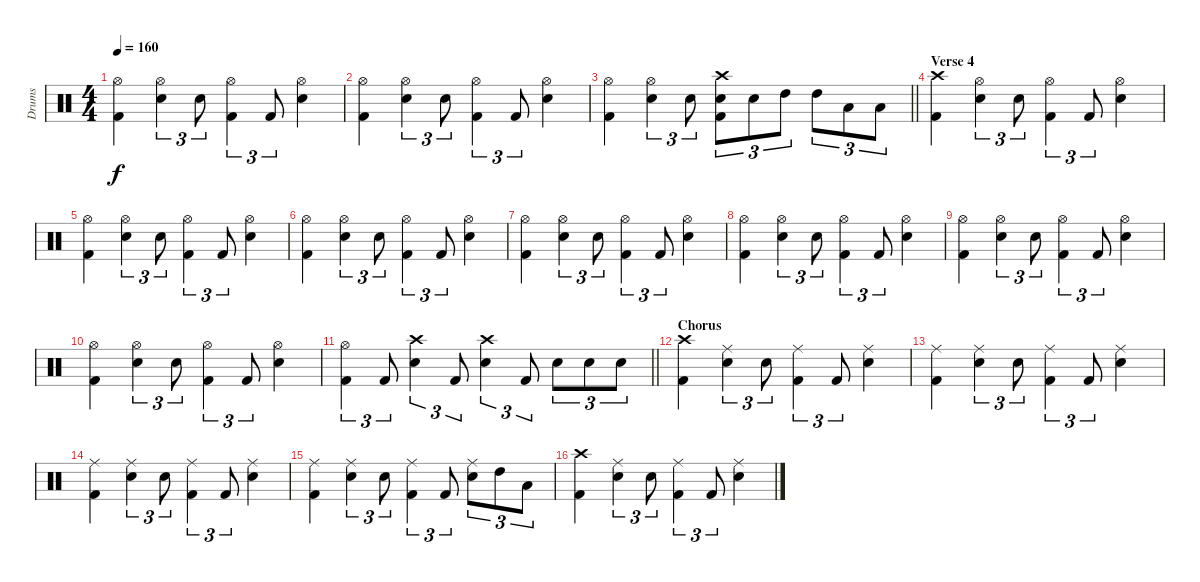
\track ("Drums" "Drums") {instrument percussion}
\staff {score}
\articulation defaults
\ts (4 4)
\tempo 160
\clef neutral
\ks c
("Hi-Hat (open)" "Kick (hit) 2").4{dy f} ("Hi-Hat (open)" "Snare (hit) 2").4{tu (3 2)} "Snare (hit) 2".8{tu (3 2)} ("Hi-Hat (open)" "Kick (hit) 2").4{tu (3 2)} "Kick (hit) 2".8{tu (3 2)} ("Hi-Hat (open)" "Snare (hit) 2").4 |
("Hi-Hat (open)" "Kick (hit) 2").4 ("Hi-Hat (open)" "Snare (hit) 2").4{tu (3 2)} "Snare (hit) 2".8{tu (3 2)} ("Hi-Hat (open)" "Kick (hit) 2").4{tu (3 2)} "Kick (hit) 2".8{tu (3 2)} ("Hi-Hat (open)" "Snare (hit) 2").4 |
\barLineRight lightlight
("Hi-Hat (open)" "Kick (hit) 2").4 ("Hi-Hat (open)" "Snare (hit) 2").4{tu (3 2)} "Snare (hit) 2".8{tu (3 2)} ("Crash high (hit)" "Snare (hit) 2" "Kick (hit) 2").8{tu (3 2)} "Snare (hit) 2".8{tu (3 2)} "High Tom (hit)".8{tu (3 2)} "High Tom (hit)".8{tu (3 2)} "Low Tom (hit)".8{tu (3 2)} "Low Tom (hit)".8{tu (3 2)} |
\section ("" "Verse 4")
("Crash high (hit)" "Kick (hit) 2").4 ("Hi-Hat (open)" "Snare (hit) 2").4{tu (3 2)} "Snare (hit) 2".8{tu (3 2)} ("Hi-Hat (open)" "Kick (hit) 2").4{tu (3 2)} "Kick (hit) 2".8{tu (3 2)} ("Hi-Hat (open)" "Snare (hit) 2").4 |
("Hi-Hat (open)" "Kick (hit) 2").4 ("Hi-Hat (open)" "Snare (hit) 2").4{tu (3 2)} "Snare (hit) 2".8{tu (3 2)} ("Hi-Hat (open)" "Kick (hit) 2").4{tu (3 2)} "Kick (hit) 2".8{tu (3 2)} ("Hi-Hat (open)" "Snare (hit) 2").4 |
("Hi-Hat (open)" "Kick (hit) 2").4 ("Hi-Hat (open)" "Snare (hit) 2").4{tu (3 2)} "Snare (hit) 2".8{tu (3 2)} ("Hi-Hat (open)" "Kick (hit) 2").4{tu (3 2)} "Kick (hit) 2".8{tu (3 2)} ("Hi-Hat (open)" "Snare (hit) 2").4 |
("Hi-Hat (open)" "Kick (hit) 2").4 ("Hi-Hat (open)" "Snare (hit) 2").4{tu (3 2)} "Snare (hit) 2".8{tu (3 2)} ("Hi-Hat (open)" "Kick (hit) 2").4{tu (3 2)} "Kick (hit) 2".8{tu (3 2)} ("Hi-Hat (open)" "Snare (hit) 2").4 |
("Hi-Hat (open)" "Kick (hit) 2").4 ("Hi-Hat (open)" "Snare (hit) 2").4{tu (3 2)} "Snare (hit) 2".8{tu (3 2)} ("Hi-Hat (open)" "Kick (hit) 2").4{tu (3 2)} "Kick (hit) 2".8{tu (3 2)} ("Hi-Hat (open)" "Snare (hit) 2").4 |
("Hi-Hat (open)" "Kick (hit) 2").4 ("Hi-Hat (open)" "Snare (hit) 2").4{tu (3 2)} "Snare (hit) 2".8{tu (3 2)} ("Hi-Hat (open)" "Kick (hit) 2").4{tu (3 2)} "Kick (hit) 2".8{tu (3 2)} ("Hi-Hat (open)" "Snare (hit) 2").4 |
("Hi-Hat (open)" "Kick (hit) 2").4 ("Hi-Hat (open)" "Snare (hit) 2").4{tu (3 2)} "Snare (hit) 2".8{tu (3 2)} ("Hi-Hat (open)" "Kick (hit) 2").4{tu (3 2)} "Kick (hit) 2".8{tu (3 2)} ("Hi-Hat (open)" "Snare (hit) 2").4 |
\barLineRight lightlight
("Hi-Hat (open)" "Kick (hit) 2").4{tu (3 2)} "Kick (hit) 2".8{tu (3 2)} ("Crash high (hit)" "Snare (hit) 2").4{tu (3 2)} "Kick (hit) 2".8{tu (3 2)} ("Crash high (hit)" "Snare (hit) 2").4{tu (3 2)} "Kick (hit) 2".8{tu (3 2)} "Snare (hit) 2".8{tu (3 2)} "Snare (hit) 2".8{tu (3 2)} "Snare (hit) 2".8{tu (3 2)} |
\section ("" "Chorus")
("Crash high (hit)" "Kick (hit) 2").4 ("Ride (middle)" "Snare (hit) 2").4{tu (3 2)} "Snare (hit) 2".8{tu (3 2)} ("Ride (middle)" "Kick (hit) 2").4{tu (3 2)} "Kick (hit) 2".8{tu (3 2)} ("Ride (middle)" "Snare (hit) 2").4 |
("Ride (middle)" "Kick (hit) 2").4 ("Ride (middle)" "Snare (hit) 2").4{tu (3 2)} "Snare (hit) 2".8{tu (3 2)} ("Ride (middle)" "Kick (hit) 2").4{tu (3 2)} "Kick (hit) 2".8{tu (3 2)} ("Ride (middle)" "Snare (hit) 2").4 |
("Ride (middle)" "Kick (hit) 2").4 ("Ride (middle)" "Snare (hit) 2").4{tu (3 2)} "Snare (hit) 2".8{tu (3 2)} ("Ride (middle)" "Kick (hit) 2").4{tu (3 2)} "Kick (hit) 2".8{tu (3 2)} ("Ride (middle)" "Snare (hit) 2").4 |
("Ride (middle)" "Kick (hit) 2").4 ("Ride (middle)" "Snare (hit) 2").4{tu (3 2)} "Snare (hit) 2".8{tu (3 2)} ("Ride (middle)" "Kick (hit) 2").4{tu (3 2)} "Kick (hit) 2".8{tu (3 2)} ("Ride (middle)" "Snare (hit) 2").8{tu (3 2)} "High Tom (hit)".8{tu (3 2)} "Low Tom (hit)".8{tu (3 2)} |
("Crash high (hit)" "Kick (hit) 2").4 ("Ride (middle)" "Snare (hit) 2").4{tu (3 2)} "Snare (hit) 2".8{tu (3 2)} ("Ride (middle)" "Kick (hit) 2").4{tu (3 2)} "Kick (hit) 2".8{tu (3 2)} ("Ride (middle)" "Snare (hit) 2").4
